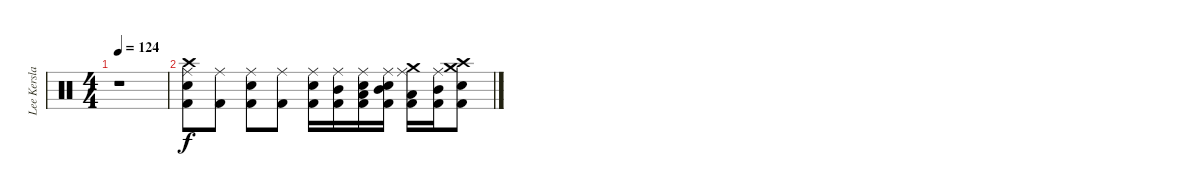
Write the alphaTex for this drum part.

\track ("Lee Kerslake" "Lee Kersla") {instrument percussion}
\staff {score}
\articulation defaults
\ts (4 4)
\tempo 124
\clef neutral
\ks c
r.1{dy f} |
("Kick (hit) 2" "Electric Snare (hit)" "Crash high (hit)" "Ride (middle)").8 ("Kick (hit) 2" "Ride (middle)").8 ("Kick (hit) 2" "Electric Snare (hit)" "Ride (middle)").8 ("Kick (hit) 2" "Ride (middle)").8 ("Kick (hit) 2" "Electric Snare (hit)" "Ride (middle)").16 ("Kick (hit) 2" "Mid Tom (hit)" "Ride (middle)").16 ("Low Tom (hit)" "Kick (hit) 2" "Electric Snare (hit)" "Ride (middle)").16 ("Kick (hit) 2" "Mid Tom (hit)" "Electric Snare (hit)" "Ride (middle)").16 ("Kick (hit) 2" "Low Tom (hit)" "Crash medium (hit)" "Ride (middle)").16 ("Kick (hit) 2" "Mid Tom (hit)" "Ride (middle)").16 ("Kick (hit) 2" "Electric Snare (hit)" "Crash high (hit)" "Crash medium (hit)").8
